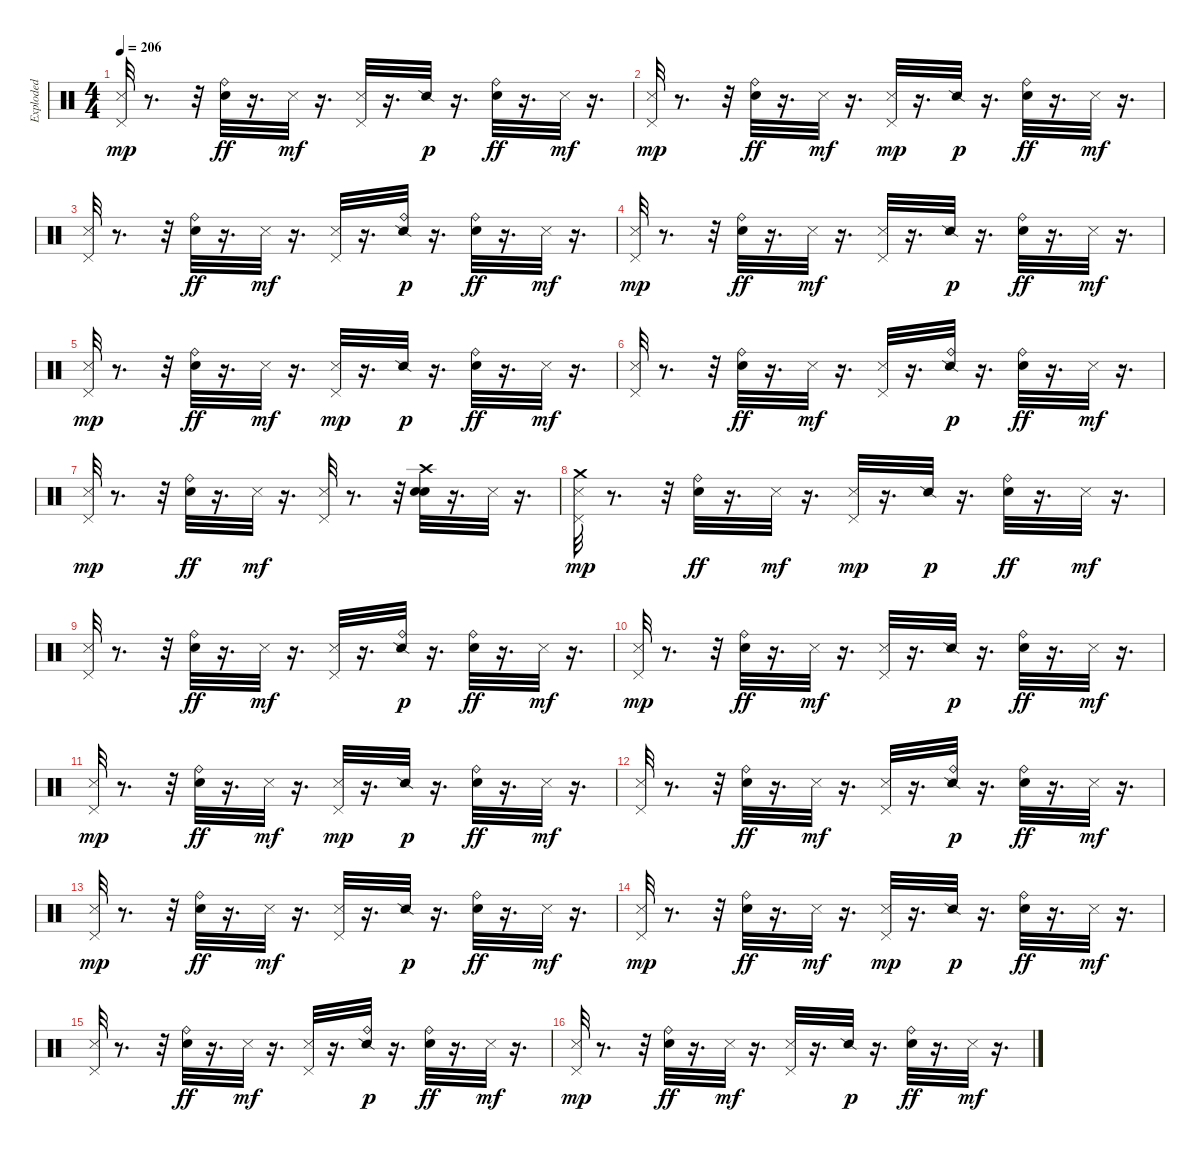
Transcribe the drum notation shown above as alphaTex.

\track ("Exploded" "Exploded") {instrument percussion}
\staff {score}
\articulation defaults
\ts (4 4)
\tempo 206
\clef neutral
\ks c
("Metronome (hit)" "Pedal Hi-Hat (hit)").32{dy mp} r.8{d} r.32 ("Electric Snare (hit)" "Ride (bell)").32{dy ff} r.16{d} "Metronome (hit)".32{dy mf} r.16{d} ("Metronome (hit)" "Pedal Hi-Hat (hit)").32 r.16{d} "Snare (side stick) 2".32{dy p} r.16{d} ("Electric Snare (hit)" "Ride (bell)").32{dy ff} r.16{d} "Metronome (hit)".32{dy mf} r.16{d} |
("Metronome (hit)" "Pedal Hi-Hat (hit)").32{dy mp} r.8{d} r.32 ("Electric Snare (hit)" "Ride (bell)").32{dy ff} r.16{d} "Metronome (hit)".32{dy mf} r.16{d} ("Metronome (hit)" "Pedal Hi-Hat (hit)").32{dy mp} r.16{d} "Snare (side stick) 2".32{dy p} r.16{d} ("Electric Snare (hit)" "Ride (bell)").32{dy ff} r.16{d} "Metronome (hit)".32{dy mf} r.16{d} |
("Metronome (hit)" "Pedal Hi-Hat (hit)").32 r.8{d} r.32 ("Electric Snare (hit)" "Ride (bell)").32{dy ff} r.16{d} "Metronome (hit)".32{dy mf} r.16{d} ("Metronome (hit)" "Pedal Hi-Hat (hit)").32 r.16{d} ("Snare (side stick) 2" "Ride (bell)").32{dy p} r.16{d} ("Electric Snare (hit)" "Ride (bell)").32{dy ff} r.16{d} "Metronome (hit)".32{dy mf} r.16{d} |
("Metronome (hit)" "Pedal Hi-Hat (hit)").32{dy mp} r.8{d} r.32 ("Electric Snare (hit)" "Ride (bell)").32{dy ff} r.16{d} "Metronome (hit)".32{dy mf} r.16{d} ("Metronome (hit)" "Pedal Hi-Hat (hit)").32 r.16{d} "Snare (side stick) 2".32{dy p} r.16{d} ("Electric Snare (hit)" "Ride (bell)").32{dy ff} r.16{d} "Metronome (hit)".32{dy mf} r.16{d} |
("Metronome (hit)" "Pedal Hi-Hat (hit)").32{dy mp} r.8{d} r.32 ("Electric Snare (hit)" "Ride (bell)").32{dy ff} r.16{d} "Metronome (hit)".32{dy mf} r.16{d} ("Metronome (hit)" "Pedal Hi-Hat (hit)").32{dy mp} r.16{d} "Snare (side stick) 2".32{dy p} r.16{d} ("Electric Snare (hit)" "Ride (bell)").32{dy ff} r.16{d} "Metronome (hit)".32{dy mf} r.16{d} |
("Metronome (hit)" "Pedal Hi-Hat (hit)").32 r.8{d} r.32 ("Electric Snare (hit)" "Ride (bell)").32{dy ff} r.16{d} "Metronome (hit)".32{dy mf} r.16{d} ("Metronome (hit)" "Pedal Hi-Hat (hit)").32 r.16{d} ("Snare (side stick) 2" "Ride (bell)").32{dy p} r.16{d} ("Electric Snare (hit)" "Ride (bell)").32{dy ff} r.16{d} "Metronome (hit)".32{dy mf} r.16{d} |
("Metronome (hit)" "Pedal Hi-Hat (hit)").32{dy mp} r.8{d} r.32 ("Electric Snare (hit)" "Ride (bell)").32{dy ff} r.16{d} "Metronome (hit)".32{dy mf} r.16{d} ("Metronome (hit)" "Pedal Hi-Hat (hit)").32 r.8{d} r.32 ("Metronome (bell)" "Electric Snare (hit)" "Crash high (hit)").32 r.16{d} "Metronome (hit)".32 r.16{d} |
("Crash medium (hit)" "Metronome (hit)" "Pedal Hi-Hat (hit)").32{dy mp} r.8{d} r.32 ("Electric Snare (hit)" "Ride (bell)").32{dy ff} r.16{d} "Metronome (hit)".32{dy mf} r.16{d} ("Metronome (hit)" "Pedal Hi-Hat (hit)").32{dy mp} r.16{d} "Snare (side stick) 2".32{dy p} r.16{d} ("Electric Snare (hit)" "Ride (bell)").32{dy ff} r.16{d} "Metronome (hit)".32{dy mf} r.16{d} |
("Metronome (hit)" "Pedal Hi-Hat (hit)").32 r.8{d} r.32 ("Electric Snare (hit)" "Ride (bell)").32{dy ff} r.16{d} "Metronome (hit)".32{dy mf} r.16{d} ("Metronome (hit)" "Pedal Hi-Hat (hit)").32 r.16{d} ("Snare (side stick) 2" "Ride (bell)").32{dy p} r.16{d} ("Electric Snare (hit)" "Ride (bell)").32{dy ff} r.16{d} "Metronome (hit)".32{dy mf} r.16{d} |
("Metronome (hit)" "Pedal Hi-Hat (hit)").32{dy mp} r.8{d} r.32 ("Electric Snare (hit)" "Ride (bell)").32{dy ff} r.16{d} "Metronome (hit)".32{dy mf} r.16{d} ("Metronome (hit)" "Pedal Hi-Hat (hit)").32 r.16{d} "Snare (side stick) 2".32{dy p} r.16{d} ("Electric Snare (hit)" "Ride (bell)").32{dy ff} r.16{d} "Metronome (hit)".32{dy mf} r.16{d} |
("Metronome (hit)" "Pedal Hi-Hat (hit)").32{dy mp} r.8{d} r.32 ("Electric Snare (hit)" "Ride (bell)").32{dy ff} r.16{d} "Metronome (hit)".32{dy mf} r.16{d} ("Metronome (hit)" "Pedal Hi-Hat (hit)").32{dy mp} r.16{d} "Snare (side stick) 2".32{dy p} r.16{d} ("Electric Snare (hit)" "Ride (bell)").32{dy ff} r.16{d} "Metronome (hit)".32{dy mf} r.16{d} |
("Metronome (hit)" "Pedal Hi-Hat (hit)").32 r.8{d} r.32 ("Electric Snare (hit)" "Ride (bell)").32{dy ff} r.16{d} "Metronome (hit)".32{dy mf} r.16{d} ("Metronome (hit)" "Pedal Hi-Hat (hit)").32 r.16{d} ("Snare (side stick) 2" "Ride (bell)").32{dy p} r.16{d} ("Electric Snare (hit)" "Ride (bell)").32{dy ff} r.16{d} "Metronome (hit)".32{dy mf} r.16{d} |
("Metronome (hit)" "Pedal Hi-Hat (hit)").32{dy mp} r.8{d} r.32 ("Electric Snare (hit)" "Ride (bell)").32{dy ff} r.16{d} "Metronome (hit)".32{dy mf} r.16{d} ("Metronome (hit)" "Pedal Hi-Hat (hit)").32 r.16{d} "Snare (side stick) 2".32{dy p} r.16{d} ("Electric Snare (hit)" "Ride (bell)").32{dy ff} r.16{d} "Metronome (hit)".32{dy mf} r.16{d} |
("Metronome (hit)" "Pedal Hi-Hat (hit)").32{dy mp} r.8{d} r.32 ("Electric Snare (hit)" "Ride (bell)").32{dy ff} r.16{d} "Metronome (hit)".32{dy mf} r.16{d} ("Metronome (hit)" "Pedal Hi-Hat (hit)").32{dy mp} r.16{d} "Snare (side stick) 2".32{dy p} r.16{d} ("Electric Snare (hit)" "Ride (bell)").32{dy ff} r.16{d} "Metronome (hit)".32{dy mf} r.16{d} |
("Metronome (hit)" "Pedal Hi-Hat (hit)").32 r.8{d} r.32 ("Electric Snare (hit)" "Ride (bell)").32{dy ff} r.16{d} "Metronome (hit)".32{dy mf} r.16{d} ("Metronome (hit)" "Pedal Hi-Hat (hit)").32 r.16{d} ("Snare (side stick) 2" "Ride (bell)").32{dy p} r.16{d} ("Electric Snare (hit)" "Ride (bell)").32{dy ff} r.16{d} "Metronome (hit)".32{dy mf} r.16{d} |
("Metronome (hit)" "Pedal Hi-Hat (hit)").32{dy mp} r.8{d} r.32 ("Electric Snare (hit)" "Ride (bell)").32{dy ff} r.16{d} "Metronome (hit)".32{dy mf} r.16{d} ("Metronome (hit)" "Pedal Hi-Hat (hit)").32 r.16{d} "Snare (side stick) 2".32{dy p} r.16{d} ("Electric Snare (hit)" "Ride (bell)").32{dy ff} r.16{d} "Metronome (hit)".32{dy mf} r.16{d}
